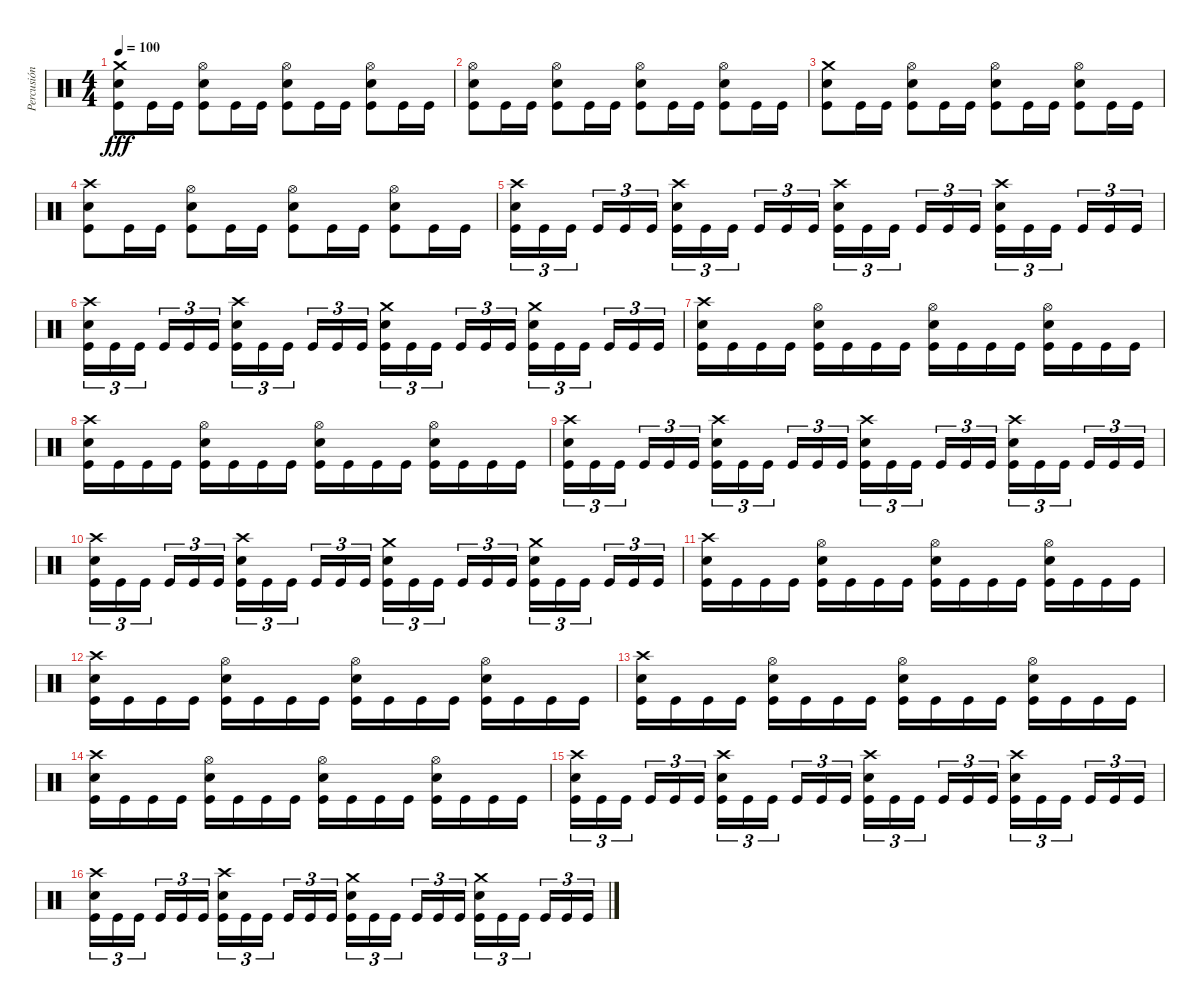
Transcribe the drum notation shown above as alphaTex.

\track ("Percusión" "Percusión") {instrument percussion}
\staff {score}
\articulation defaults
\ts (4 4)
\tempo 100
\clef neutral
\ks c
("Crash medium (hit)" "Electric Snare (hit)" "Kick (hit)").8{dy fff} "Kick (hit)".16 "Kick (hit)".16 ("Hi-Hat (open)" "Electric Snare (hit)" "Kick (hit)").8 "Kick (hit)".16 "Kick (hit)".16 ("Hi-Hat (open)" "Electric Snare (hit)" "Kick (hit)").8 "Kick (hit)".16 "Kick (hit)".16 ("Hi-Hat (open)" "Electric Snare (hit)" "Kick (hit)").8 "Kick (hit)".16 "Kick (hit)".16 |
("Hi-Hat (open)" "Electric Snare (hit)" "Kick (hit)").8 "Kick (hit)".16 "Kick (hit)".16 ("Hi-Hat (open)" "Electric Snare (hit)" "Kick (hit)").8 "Kick (hit)".16 "Kick (hit)".16 ("Hi-Hat (open)" "Electric Snare (hit)" "Kick (hit)").8 "Kick (hit)".16 "Kick (hit)".16 ("Hi-Hat (open)" "Electric Snare (hit)" "Kick (hit)").8 "Kick (hit)".16 "Kick (hit)".16 |
("Crash medium (hit)" "Electric Snare (hit)" "Kick (hit)").8 "Kick (hit)".16 "Kick (hit)".16 ("Hi-Hat (open)" "Electric Snare (hit)" "Kick (hit)").8 "Kick (hit)".16 "Kick (hit)".16 ("Hi-Hat (open)" "Electric Snare (hit)" "Kick (hit)").8 "Kick (hit)".16 "Kick (hit)".16 ("Hi-Hat (open)" "Electric Snare (hit)" "Kick (hit)").8 "Kick (hit)".16 "Kick (hit)".16 |
("Crash high (hit)" "Electric Snare (hit)" "Kick (hit)").8 "Kick (hit)".16 "Kick (hit)".16 ("Hi-Hat (open)" "Electric Snare (hit)" "Kick (hit)").8 "Kick (hit)".16 "Kick (hit)".16 ("Hi-Hat (open)" "Electric Snare (hit)" "Kick (hit)").8 "Kick (hit)".16 "Kick (hit)".16 ("Hi-Hat (open)" "Electric Snare (hit)" "Kick (hit)").8 "Kick (hit)".16 "Kick (hit)".16 |
("Crash high (hit)" "Electric Snare (hit)" "Kick (hit)").16{tu (3 2)} "Kick (hit)".16{tu (3 2)} "Kick (hit)".16{tu (3 2)} "Kick (hit)".16{tu (3 2)} "Kick (hit)".16{tu (3 2)} "Kick (hit)".16{tu (3 2)} ("Crash high (hit)" "Electric Snare (hit)" "Kick (hit)").16{tu (3 2)} "Kick (hit)".16{tu (3 2)} "Kick (hit)".16{tu (3 2)} "Kick (hit)".16{tu (3 2)} "Kick (hit)".16{tu (3 2)} "Kick (hit)".16{tu (3 2)} ("Crash high (hit)" "Electric Snare (hit)" "Kick (hit)").16{tu (3 2)} "Kick (hit)".16{tu (3 2)} "Kick (hit)".16{tu (3 2)} "Kick (hit)".16{tu (3 2)} "Kick (hit)".16{tu (3 2)} "Kick (hit)".16{tu (3 2)} ("Crash high (hit)" "Electric Snare (hit)" "Kick (hit)").16{tu (3 2)} "Kick (hit)".16{tu (3 2)} "Kick (hit)".16{tu (3 2)} "Kick (hit)".16{tu (3 2)} "Kick (hit)".16{tu (3 2)} "Kick (hit)".16{tu (3 2)} |
("Crash high (hit)" "Electric Snare (hit)" "Kick (hit)").16{tu (3 2)} "Kick (hit)".16{tu (3 2)} "Kick (hit)".16{tu (3 2)} "Kick (hit)".16{tu (3 2)} "Kick (hit)".16{tu (3 2)} "Kick (hit)".16{tu (3 2)} ("Crash high (hit)" "Electric Snare (hit)" "Kick (hit)").16{tu (3 2)} "Kick (hit)".16{tu (3 2)} "Kick (hit)".16{tu (3 2)} "Kick (hit)".16{tu (3 2)} "Kick (hit)".16{tu (3 2)} "Kick (hit)".16{tu (3 2)} ("Crash medium (hit)" "Electric Snare (hit)" "Kick (hit)").16{tu (3 2)} "Kick (hit)".16{tu (3 2)} "Kick (hit)".16{tu (3 2)} "Kick (hit)".16{tu (3 2)} "Kick (hit)".16{tu (3 2)} "Kick (hit)".16{tu (3 2)} ("Crash medium (hit)" "Electric Snare (hit)" "Kick (hit)").16{tu (3 2)} "Kick (hit)".16{tu (3 2)} "Kick (hit)".16{tu (3 2)} "Kick (hit)".16{tu (3 2)} "Kick (hit)".16{tu (3 2)} "Kick (hit)".16{tu (3 2)} |
("Crash high (hit)" "Electric Snare (hit)" "Kick (hit)").16 "Kick (hit)".16 "Kick (hit)".16 "Kick (hit)".16 ("Hi-Hat (open)" "Electric Snare (hit)" "Kick (hit)").16 "Kick (hit)".16 "Kick (hit)".16 "Kick (hit)".16 ("Hi-Hat (open)" "Electric Snare (hit)" "Kick (hit)").16 "Kick (hit)".16 "Kick (hit)".16 "Kick (hit)".16 ("Hi-Hat (open)" "Electric Snare (hit)" "Kick (hit)").16 "Kick (hit)".16 "Kick (hit)".16 "Kick (hit)".16 |
("Crash high (hit)" "Electric Snare (hit)" "Kick (hit)").16 "Kick (hit)".16 "Kick (hit)".16 "Kick (hit)".16 ("Hi-Hat (open)" "Electric Snare (hit)" "Kick (hit)").16 "Kick (hit)".16 "Kick (hit)".16 "Kick (hit)".16 ("Hi-Hat (open)" "Electric Snare (hit)" "Kick (hit)").16 "Kick (hit)".16 "Kick (hit)".16 "Kick (hit)".16 ("Hi-Hat (open)" "Electric Snare (hit)" "Kick (hit)").16 "Kick (hit)".16 "Kick (hit)".16 "Kick (hit)".16 |
("Crash high (hit)" "Electric Snare (hit)" "Kick (hit)").16{tu (3 2)} "Kick (hit)".16{tu (3 2)} "Kick (hit)".16{tu (3 2)} "Kick (hit)".16{tu (3 2)} "Kick (hit)".16{tu (3 2)} "Kick (hit)".16{tu (3 2)} ("Crash high (hit)" "Electric Snare (hit)" "Kick (hit)").16{tu (3 2)} "Kick (hit)".16{tu (3 2)} "Kick (hit)".16{tu (3 2)} "Kick (hit)".16{tu (3 2)} "Kick (hit)".16{tu (3 2)} "Kick (hit)".16{tu (3 2)} ("Crash high (hit)" "Electric Snare (hit)" "Kick (hit)").16{tu (3 2)} "Kick (hit)".16{tu (3 2)} "Kick (hit)".16{tu (3 2)} "Kick (hit)".16{tu (3 2)} "Kick (hit)".16{tu (3 2)} "Kick (hit)".16{tu (3 2)} ("Crash high (hit)" "Electric Snare (hit)" "Kick (hit)").16{tu (3 2)} "Kick (hit)".16{tu (3 2)} "Kick (hit)".16{tu (3 2)} "Kick (hit)".16{tu (3 2)} "Kick (hit)".16{tu (3 2)} "Kick (hit)".16{tu (3 2)} |
("Crash high (hit)" "Electric Snare (hit)" "Kick (hit)").16{tu (3 2)} "Kick (hit)".16{tu (3 2)} "Kick (hit)".16{tu (3 2)} "Kick (hit)".16{tu (3 2)} "Kick (hit)".16{tu (3 2)} "Kick (hit)".16{tu (3 2)} ("Crash high (hit)" "Electric Snare (hit)" "Kick (hit)").16{tu (3 2)} "Kick (hit)".16{tu (3 2)} "Kick (hit)".16{tu (3 2)} "Kick (hit)".16{tu (3 2)} "Kick (hit)".16{tu (3 2)} "Kick (hit)".16{tu (3 2)} ("Crash medium (hit)" "Electric Snare (hit)" "Kick (hit)").16{tu (3 2)} "Kick (hit)".16{tu (3 2)} "Kick (hit)".16{tu (3 2)} "Kick (hit)".16{tu (3 2)} "Kick (hit)".16{tu (3 2)} "Kick (hit)".16{tu (3 2)} ("Crash medium (hit)" "Electric Snare (hit)" "Kick (hit)").16{tu (3 2)} "Kick (hit)".16{tu (3 2)} "Kick (hit)".16{tu (3 2)} "Kick (hit)".16{tu (3 2)} "Kick (hit)".16{tu (3 2)} "Kick (hit)".16{tu (3 2)} |
("Crash high (hit)" "Electric Snare (hit)" "Kick (hit)").16 "Kick (hit)".16 "Kick (hit)".16 "Kick (hit)".16 ("Hi-Hat (open)" "Electric Snare (hit)" "Kick (hit)").16 "Kick (hit)".16 "Kick (hit)".16 "Kick (hit)".16 ("Hi-Hat (open)" "Electric Snare (hit)" "Kick (hit)").16 "Kick (hit)".16 "Kick (hit)".16 "Kick (hit)".16 ("Hi-Hat (open)" "Electric Snare (hit)" "Kick (hit)").16 "Kick (hit)".16 "Kick (hit)".16 "Kick (hit)".16 |
("Crash high (hit)" "Electric Snare (hit)" "Kick (hit)").16 "Kick (hit)".16 "Kick (hit)".16 "Kick (hit)".16 ("Hi-Hat (open)" "Electric Snare (hit)" "Kick (hit)").16 "Kick (hit)".16 "Kick (hit)".16 "Kick (hit)".16 ("Hi-Hat (open)" "Electric Snare (hit)" "Kick (hit)").16 "Kick (hit)".16 "Kick (hit)".16 "Kick (hit)".16 ("Hi-Hat (open)" "Electric Snare (hit)" "Kick (hit)").16 "Kick (hit)".16 "Kick (hit)".16 "Kick (hit)".16 |
("Crash high (hit)" "Electric Snare (hit)" "Kick (hit)").16 "Kick (hit)".16 "Kick (hit)".16 "Kick (hit)".16 ("Hi-Hat (open)" "Electric Snare (hit)" "Kick (hit)").16 "Kick (hit)".16 "Kick (hit)".16 "Kick (hit)".16 ("Hi-Hat (open)" "Electric Snare (hit)" "Kick (hit)").16 "Kick (hit)".16 "Kick (hit)".16 "Kick (hit)".16 ("Hi-Hat (open)" "Electric Snare (hit)" "Kick (hit)").16 "Kick (hit)".16 "Kick (hit)".16 "Kick (hit)".16 |
("Crash high (hit)" "Electric Snare (hit)" "Kick (hit)").16 "Kick (hit)".16 "Kick (hit)".16 "Kick (hit)".16 ("Hi-Hat (open)" "Electric Snare (hit)" "Kick (hit)").16 "Kick (hit)".16 "Kick (hit)".16 "Kick (hit)".16 ("Hi-Hat (open)" "Electric Snare (hit)" "Kick (hit)").16 "Kick (hit)".16 "Kick (hit)".16 "Kick (hit)".16 ("Hi-Hat (open)" "Electric Snare (hit)" "Kick (hit)").16 "Kick (hit)".16 "Kick (hit)".16 "Kick (hit)".16 |
("Crash high (hit)" "Electric Snare (hit)" "Kick (hit)").16{tu (3 2)} "Kick (hit)".16{tu (3 2)} "Kick (hit)".16{tu (3 2)} "Kick (hit)".16{tu (3 2)} "Kick (hit)".16{tu (3 2)} "Kick (hit)".16{tu (3 2)} ("Crash high (hit)" "Electric Snare (hit)" "Kick (hit)").16{tu (3 2)} "Kick (hit)".16{tu (3 2)} "Kick (hit)".16{tu (3 2)} "Kick (hit)".16{tu (3 2)} "Kick (hit)".16{tu (3 2)} "Kick (hit)".16{tu (3 2)} ("Crash high (hit)" "Electric Snare (hit)" "Kick (hit)").16{tu (3 2)} "Kick (hit)".16{tu (3 2)} "Kick (hit)".16{tu (3 2)} "Kick (hit)".16{tu (3 2)} "Kick (hit)".16{tu (3 2)} "Kick (hit)".16{tu (3 2)} ("Crash high (hit)" "Electric Snare (hit)" "Kick (hit)").16{tu (3 2)} "Kick (hit)".16{tu (3 2)} "Kick (hit)".16{tu (3 2)} "Kick (hit)".16{tu (3 2)} "Kick (hit)".16{tu (3 2)} "Kick (hit)".16{tu (3 2)} |
("Crash high (hit)" "Electric Snare (hit)" "Kick (hit)").16{tu (3 2)} "Kick (hit)".16{tu (3 2)} "Kick (hit)".16{tu (3 2)} "Kick (hit)".16{tu (3 2)} "Kick (hit)".16{tu (3 2)} "Kick (hit)".16{tu (3 2)} ("Crash high (hit)" "Electric Snare (hit)" "Kick (hit)").16{tu (3 2)} "Kick (hit)".16{tu (3 2)} "Kick (hit)".16{tu (3 2)} "Kick (hit)".16{tu (3 2)} "Kick (hit)".16{tu (3 2)} "Kick (hit)".16{tu (3 2)} ("Crash medium (hit)" "Electric Snare (hit)" "Kick (hit)").16{tu (3 2)} "Kick (hit)".16{tu (3 2)} "Kick (hit)".16{tu (3 2)} "Kick (hit)".16{tu (3 2)} "Kick (hit)".16{tu (3 2)} "Kick (hit)".16{tu (3 2)} ("Crash medium (hit)" "Electric Snare (hit)" "Kick (hit)").16{tu (3 2)} "Kick (hit)".16{tu (3 2)} "Kick (hit)".16{tu (3 2)} "Kick (hit)".16{tu (3 2)} "Kick (hit)".16{tu (3 2)} "Kick (hit)".16{tu (3 2)}
